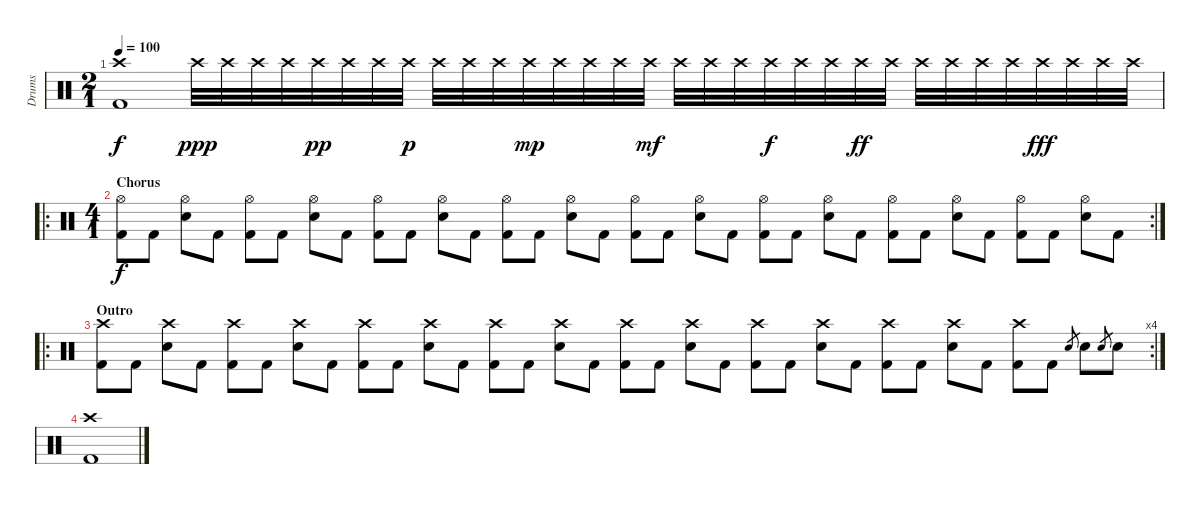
\track ("Drums" "Drums") {instrument percussion}
\staff {score}
\articulation defaults
\ts (2 1)
\tempo 100
\clef neutral
\ks c
("Crash high (hit)" "Kick (hit) 2").1{dy f} "Crash high (hit)".32{dy ppp} "Crash high (hit)".32 "Crash high (hit)".32 "Crash high (hit)".32 "Crash high (hit)".32{dy pp} "Crash high (hit)".32 "Crash high (hit)".32 "Crash high (hit)".32{dy p} "Crash high (hit)".32 "Crash high (hit)".32 "Crash high (hit)".32 "Crash high (hit)".32{dy mp} "Crash high (hit)".32 "Crash high (hit)".32 "Crash high (hit)".32 "Crash high (hit)".32{dy mf} "Crash high (hit)".32 "Crash high (hit)".32 "Crash high (hit)".32 "Crash high (hit)".32{dy f} "Crash high (hit)".32 "Crash high (hit)".32 "Crash high (hit)".32{dy ff} "Crash high (hit)".32 "Crash high (hit)".32 "Crash high (hit)".32 "Crash high (hit)".32 "Crash high (hit)".32 "Crash high (hit)".32{dy fff} "Crash high (hit)".32 "Crash high (hit)".32 "Crash high (hit)".32 |
\ro
\rc 2
\ts (4 1)
\section ("" "Chorus")
("Hi-Hat (open)" "Kick (hit) 2").8{dy f} "Kick (hit) 2".8 ("Hi-Hat (open)" "Electric Snare (hit)").8 "Kick (hit) 2".8 ("Hi-Hat (open)" "Kick (hit) 2").8 "Kick (hit) 2".8 ("Hi-Hat (open)" "Electric Snare (hit)").8 "Kick (hit) 2".8 ("Hi-Hat (open)" "Kick (hit) 2").8 "Kick (hit) 2".8 ("Hi-Hat (open)" "Electric Snare (hit)").8 "Kick (hit) 2".8 ("Hi-Hat (open)" "Kick (hit) 2").8 "Kick (hit) 2".8 ("Hi-Hat (open)" "Electric Snare (hit)").8 "Kick (hit) 2".8 ("Hi-Hat (open)" "Kick (hit) 2").8 "Kick (hit) 2".8 ("Hi-Hat (open)" "Electric Snare (hit)").8 "Kick (hit) 2".8 ("Hi-Hat (open)" "Kick (hit) 2").8 "Kick (hit) 2".8 ("Hi-Hat (open)" "Electric Snare (hit)").8 "Kick (hit) 2".8 ("Hi-Hat (open)" "Kick (hit) 2").8 "Kick (hit) 2".8 ("Hi-Hat (open)" "Electric Snare (hit)").8 "Kick (hit) 2".8 ("Hi-Hat (open)" "Kick (hit) 2").8 "Kick (hit) 2".8 ("Hi-Hat (open)" "Electric Snare (hit)").8 "Kick (hit) 2".8 |
\ro
\rc 4
\section ("" "Outro")
("Crash high (hit)" "Kick (hit) 2").8 "Kick (hit) 2".8 ("Crash high (hit)" "Electric Snare (hit)").8 "Kick (hit) 2".8 ("Crash high (hit)" "Kick (hit) 2").8 "Kick (hit) 2".8 ("Crash high (hit)" "Electric Snare (hit)").8 "Kick (hit) 2".8 ("Crash high (hit)" "Kick (hit) 2").8 "Kick (hit) 2".8 ("Crash high (hit)" "Electric Snare (hit)").8 "Kick (hit) 2".8 ("Crash high (hit)" "Kick (hit) 2").8 "Kick (hit) 2".8 ("Crash high (hit)" "Electric Snare (hit)").8 "Kick (hit) 2".8 ("Crash high (hit)" "Kick (hit) 2").8 "Kick (hit) 2".8 ("Crash high (hit)" "Electric Snare (hit)").8 "Kick (hit) 2".8 ("Crash high (hit)" "Kick (hit) 2").8 "Kick (hit) 2".8 ("Crash high (hit)" "Electric Snare (hit)").8 "Kick (hit) 2".8 ("Crash high (hit)" "Kick (hit) 2").8 "Kick (hit) 2".8 ("Crash high (hit)" "Electric Snare (hit)").8 "Kick (hit) 2".8 ("Crash high (hit)" "Kick (hit) 2").8 "Kick (hit) 2".8 "Electric Snare (hit)".8{gr} "Electric Snare (hit)".8 "Electric Snare (hit)".8{gr} "Electric Snare (hit)".8 |
("Crash high (hit)" "Kick (hit) 2").1
